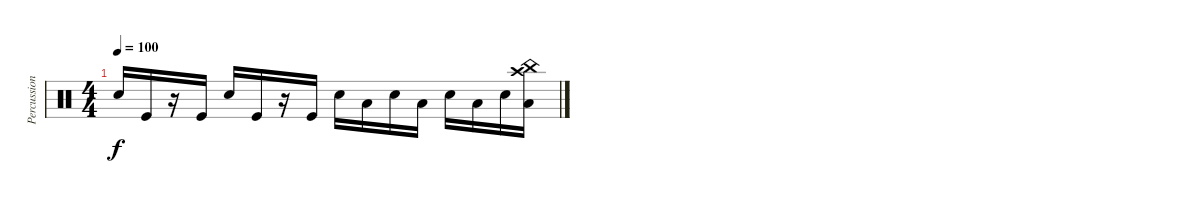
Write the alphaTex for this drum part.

\track ("Percussion" "Percussion") {instrument percussion}
\staff {score}
\articulation defaults
\ts (4 4)
\tempo 100
\clef neutral
\ks c "Electric Snare (hit)".16{dy f} "Kick (hit)".16
r.16 "Kick (hit)".16 "Electric Snare (hit)".16 "Kick (hit)".16 r.16 "Kick (hit)".16 "Electric Snare (hit)".16 "Low Floor Tom (hit)".16 "Electric Snare (hit)".16 "Low Floor Tom (hit)".16 "Electric Snare (hit)".16 "Low Floor Tom (hit)".16 "Electric Snare (hit)".16 ("Low Floor Tom (hit)" "Crash high (hit)" "China (hit)").16
